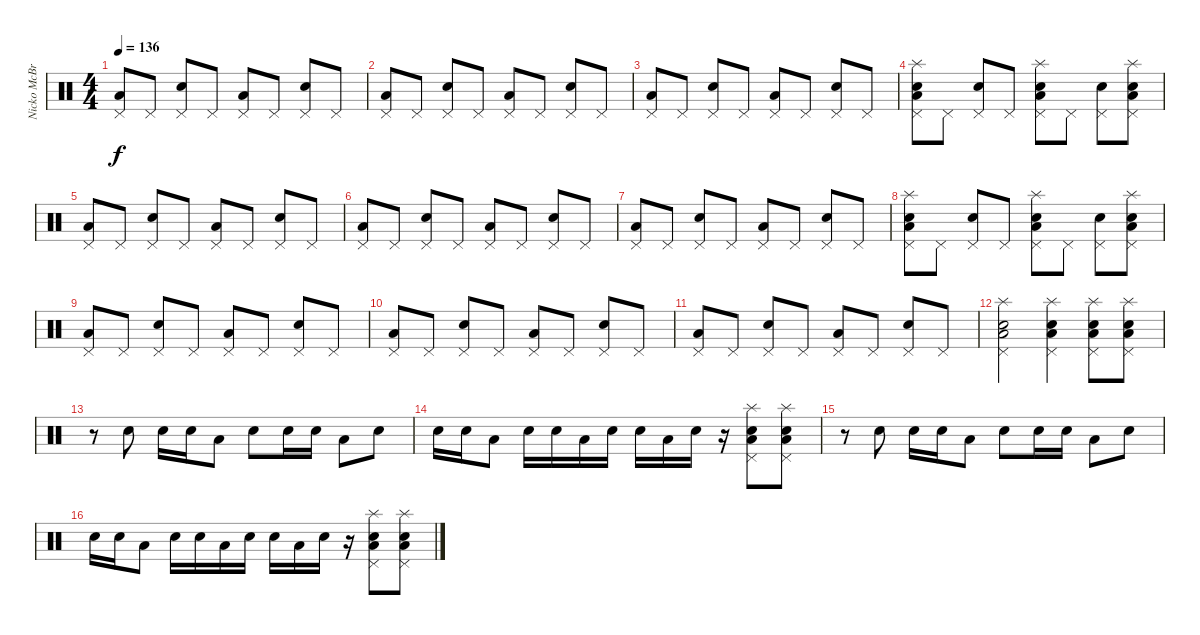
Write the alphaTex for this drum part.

\track ("Nicko McBrian" "Nicko McBr") {instrument percussion}
\staff {score}
\articulation defaults
\ts (4 4)
\tempo 136
\clef neutral
\ks c
("Low Floor Tom (hit)" "Pedal Hi-Hat (hit)").8{dy f} "Pedal Hi-Hat (hit)".8 ("Electric Snare (hit)" "Pedal Hi-Hat (hit)").8 "Pedal Hi-Hat (hit)".8 ("Low Floor Tom (hit)" "Pedal Hi-Hat (hit)").8 "Pedal Hi-Hat (hit)".8 ("Electric Snare (hit)" "Pedal Hi-Hat (hit)").8 "Pedal Hi-Hat (hit)".8 |
("Low Floor Tom (hit)" "Pedal Hi-Hat (hit)").8 "Pedal Hi-Hat (hit)".8 ("Electric Snare (hit)" "Pedal Hi-Hat (hit)").8 "Pedal Hi-Hat (hit)".8 ("Low Floor Tom (hit)" "Pedal Hi-Hat (hit)").8 "Pedal Hi-Hat (hit)".8 ("Electric Snare (hit)" "Pedal Hi-Hat (hit)").8 "Pedal Hi-Hat (hit)".8 |
("Low Floor Tom (hit)" "Pedal Hi-Hat (hit)").8 "Pedal Hi-Hat (hit)".8 ("Electric Snare (hit)" "Pedal Hi-Hat (hit)").8 "Pedal Hi-Hat (hit)".8 ("Low Floor Tom (hit)" "Pedal Hi-Hat (hit)").8 "Pedal Hi-Hat (hit)".8 ("Electric Snare (hit)" "Pedal Hi-Hat (hit)").8 "Pedal Hi-Hat (hit)".8 |
("Electric Snare (hit)" "Low Floor Tom (hit)" "Pedal Hi-Hat (hit)" "Splash (hit)").8 "Pedal Hi-Hat (hit)".8 ("Electric Snare (hit)" "Pedal Hi-Hat (hit)").8 "Pedal Hi-Hat (hit)".8 ("Electric Snare (hit)" "Low Floor Tom (hit)" "Pedal Hi-Hat (hit)" "Splash (hit)").8 "Pedal Hi-Hat (hit)".8 ("Electric Snare (hit)" "Pedal Hi-Hat (hit)").8 ("Electric Snare (hit)" "Low Floor Tom (hit)" "Pedal Hi-Hat (hit)" "Splash (hit)").8 |
("Low Floor Tom (hit)" "Pedal Hi-Hat (hit)").8 "Pedal Hi-Hat (hit)".8 ("Electric Snare (hit)" "Pedal Hi-Hat (hit)").8 "Pedal Hi-Hat (hit)".8 ("Low Floor Tom (hit)" "Pedal Hi-Hat (hit)").8 "Pedal Hi-Hat (hit)".8 ("Electric Snare (hit)" "Pedal Hi-Hat (hit)").8 "Pedal Hi-Hat (hit)".8 |
("Low Floor Tom (hit)" "Pedal Hi-Hat (hit)").8 "Pedal Hi-Hat (hit)".8 ("Electric Snare (hit)" "Pedal Hi-Hat (hit)").8 "Pedal Hi-Hat (hit)".8 ("Low Floor Tom (hit)" "Pedal Hi-Hat (hit)").8 "Pedal Hi-Hat (hit)".8 ("Electric Snare (hit)" "Pedal Hi-Hat (hit)").8 "Pedal Hi-Hat (hit)".8 |
("Low Floor Tom (hit)" "Pedal Hi-Hat (hit)").8 "Pedal Hi-Hat (hit)".8 ("Electric Snare (hit)" "Pedal Hi-Hat (hit)").8 "Pedal Hi-Hat (hit)".8 ("Low Floor Tom (hit)" "Pedal Hi-Hat (hit)").8 "Pedal Hi-Hat (hit)".8 ("Electric Snare (hit)" "Pedal Hi-Hat (hit)").8 "Pedal Hi-Hat (hit)".8 |
("Electric Snare (hit)" "Low Floor Tom (hit)" "Pedal Hi-Hat (hit)" "Splash (hit)").8 "Pedal Hi-Hat (hit)".8 ("Electric Snare (hit)" "Pedal Hi-Hat (hit)").8 "Pedal Hi-Hat (hit)".8 ("Electric Snare (hit)" "Low Floor Tom (hit)" "Pedal Hi-Hat (hit)" "Splash (hit)").8 "Pedal Hi-Hat (hit)".8 ("Electric Snare (hit)" "Pedal Hi-Hat (hit)").8 ("Electric Snare (hit)" "Low Floor Tom (hit)" "Pedal Hi-Hat (hit)" "Splash (hit)").8 |
("Low Floor Tom (hit)" "Pedal Hi-Hat (hit)").8 "Pedal Hi-Hat (hit)".8 ("Electric Snare (hit)" "Pedal Hi-Hat (hit)").8 "Pedal Hi-Hat (hit)".8 ("Low Floor Tom (hit)" "Pedal Hi-Hat (hit)").8 "Pedal Hi-Hat (hit)".8 ("Electric Snare (hit)" "Pedal Hi-Hat (hit)").8 "Pedal Hi-Hat (hit)".8 |
("Low Floor Tom (hit)" "Pedal Hi-Hat (hit)").8 "Pedal Hi-Hat (hit)".8 ("Electric Snare (hit)" "Pedal Hi-Hat (hit)").8 "Pedal Hi-Hat (hit)".8 ("Low Floor Tom (hit)" "Pedal Hi-Hat (hit)").8 "Pedal Hi-Hat (hit)".8 ("Electric Snare (hit)" "Pedal Hi-Hat (hit)").8 "Pedal Hi-Hat (hit)".8 |
("Low Floor Tom (hit)" "Pedal Hi-Hat (hit)").8 "Pedal Hi-Hat (hit)".8 ("Electric Snare (hit)" "Pedal Hi-Hat (hit)").8 "Pedal Hi-Hat (hit)".8 ("Low Floor Tom (hit)" "Pedal Hi-Hat (hit)").8 "Pedal Hi-Hat (hit)".8 ("Electric Snare (hit)" "Pedal Hi-Hat (hit)").8 "Pedal Hi-Hat (hit)".8 |
("Electric Snare (hit)" "Low Floor Tom (hit)" "Pedal Hi-Hat (hit)" "Splash (hit)").2 ("Electric Snare (hit)" "Low Floor Tom (hit)" "Pedal Hi-Hat (hit)" "Splash (hit)").4 ("Electric Snare (hit)" "Low Floor Tom (hit)" "Pedal Hi-Hat (hit)" "Splash (hit)").8 ("Electric Snare (hit)" "Low Floor Tom (hit)" "Pedal Hi-Hat (hit)" "Splash (hit)").8 |
r.8 "Electric Snare (hit)".8 "Electric Snare (hit)".16 "Electric Snare (hit)".16 "Low Floor Tom (hit)".8 "Electric Snare (hit)".8 "Electric Snare (hit)".16 "Electric Snare (hit)".16 "Low Floor Tom (hit)".8 "Electric Snare (hit)".8 |
"Electric Snare (hit)".16 "Electric Snare (hit)".16 "Low Floor Tom (hit)".8 "Electric Snare (hit)".16 "Electric Snare (hit)".16 "Low Floor Tom (hit)".16 "Electric Snare (hit)".16 "Electric Snare (hit)".16 "Low Floor Tom (hit)".16 "Electric Snare (hit)".16 r.16 ("Electric Snare (hit)" "Low Floor Tom (hit)" "Pedal Hi-Hat (hit)" "Splash (hit)").8 ("Electric Snare (hit)" "Low Floor Tom (hit)" "Pedal Hi-Hat (hit)" "Splash (hit)").8 |
r.8 "Electric Snare (hit)".8 "Electric Snare (hit)".16 "Electric Snare (hit)".16 "Low Floor Tom (hit)".8 "Electric Snare (hit)".8 "Electric Snare (hit)".16 "Electric Snare (hit)".16 "Low Floor Tom (hit)".8 "Electric Snare (hit)".8 |
"Electric Snare (hit)".16 "Electric Snare (hit)".16 "Low Floor Tom (hit)".8 "Electric Snare (hit)".16 "Electric Snare (hit)".16 "Low Floor Tom (hit)".16 "Electric Snare (hit)".16 "Electric Snare (hit)".16 "Low Floor Tom (hit)".16 "Electric Snare (hit)".16 r.16 ("Electric Snare (hit)" "Low Floor Tom (hit)" "Pedal Hi-Hat (hit)" "Splash (hit)").8 ("Electric Snare (hit)" "Low Floor Tom (hit)" "Pedal Hi-Hat (hit)" "Splash (hit)").8
